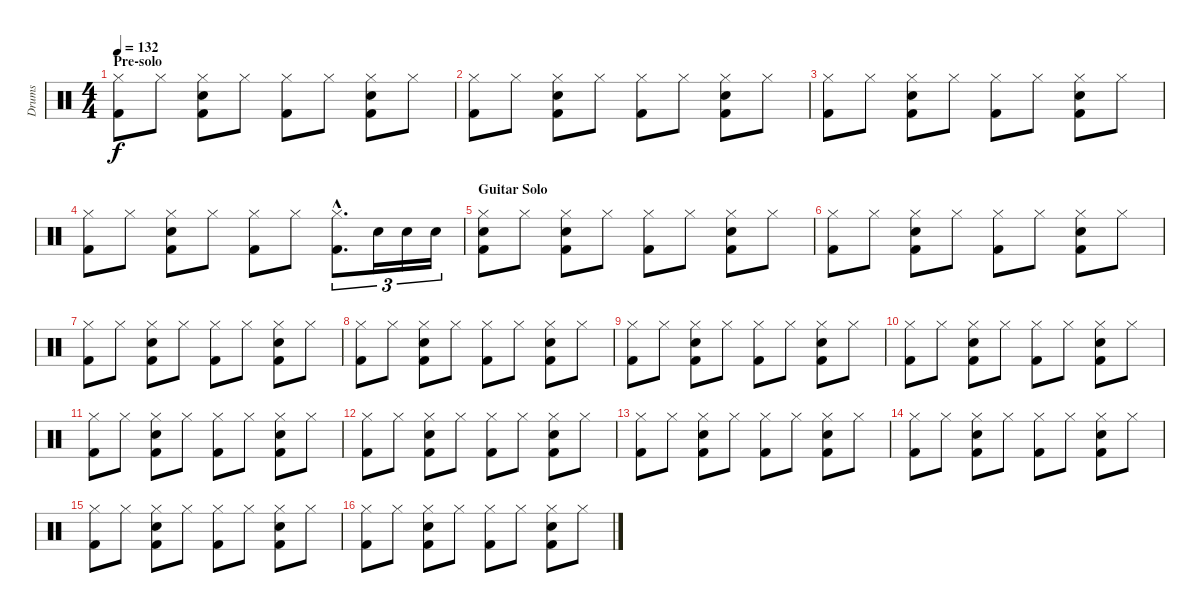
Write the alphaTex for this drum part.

\track ("Drums" "Drums") {instrument percussion}
\staff {score}
\articulation defaults
\ts (4 4)
\section ("" "Pre-solo")
\tempo 132
\clef neutral
\ks c
("Hi-Hat (closed)" "Kick (hit) 2").8{dy f} "Hi-Hat (closed)".8 ("Hi-Hat (closed)" "Snare (hit) 2" "Kick (hit) 2").8 "Hi-Hat (closed)".8 ("Hi-Hat (closed)" "Kick (hit) 2").8 "Hi-Hat (closed)".8 ("Hi-Hat (closed)" "Snare (hit) 2" "Kick (hit) 2").8 "Hi-Hat (closed)".8 |
("Hi-Hat (closed)" "Kick (hit) 2").8 "Hi-Hat (closed)".8 ("Hi-Hat (closed)" "Snare (hit) 2" "Kick (hit) 2").8 "Hi-Hat (closed)".8 ("Hi-Hat (closed)" "Kick (hit) 2").8 "Hi-Hat (closed)".8 ("Hi-Hat (closed)" "Snare (hit) 2" "Kick (hit) 2").8 "Hi-Hat (closed)".8 |
("Hi-Hat (closed)" "Kick (hit) 2").8 "Hi-Hat (closed)".8 ("Hi-Hat (closed)" "Snare (hit) 2" "Kick (hit) 2").8 "Hi-Hat (closed)".8 ("Hi-Hat (closed)" "Kick (hit) 2").8 "Hi-Hat (closed)".8 ("Hi-Hat (closed)" "Snare (hit) 2" "Kick (hit) 2").8 "Hi-Hat (closed)".8 |
("Hi-Hat (closed)" "Kick (hit) 2").8 "Hi-Hat (closed)".8 ("Hi-Hat (closed)" "Snare (hit) 2" "Kick (hit) 2").8 "Hi-Hat (closed)".8 ("Hi-Hat (closed)" "Kick (hit) 2").8 "Hi-Hat (closed)".8 ("Hi-Hat (closed)"{hac} "Kick (hit) 2"{hac}).8{d tu (3 2)} "Snare (hit) 2".16{tu (3 2)} "Snare (hit) 2".16{tu (3 2)} "Snare (hit) 2".16{tu (3 2)} |
\section ("" "Guitar Solo")
("Hi-Hat (closed)" "Snare (hit) 2" "Kick (hit) 2").8 "Hi-Hat (closed)".8 ("Hi-Hat (closed)" "Snare (hit) 2" "Kick (hit) 2").8 "Hi-Hat (closed)".8 ("Hi-Hat (closed)" "Kick (hit) 2").8 "Hi-Hat (closed)".8 ("Hi-Hat (closed)" "Snare (hit) 2" "Kick (hit) 2").8 "Hi-Hat (closed)".8 |
("Hi-Hat (closed)" "Kick (hit) 2").8 "Hi-Hat (closed)".8 ("Hi-Hat (closed)" "Snare (hit) 2" "Kick (hit) 2").8 "Hi-Hat (closed)".8 ("Hi-Hat (closed)" "Kick (hit) 2").8 "Hi-Hat (closed)".8 ("Hi-Hat (closed)" "Snare (hit) 2" "Kick (hit) 2").8 "Hi-Hat (closed)".8 |
("Hi-Hat (closed)" "Kick (hit) 2").8 "Hi-Hat (closed)".8 ("Hi-Hat (closed)" "Snare (hit) 2" "Kick (hit) 2").8 "Hi-Hat (closed)".8 ("Hi-Hat (closed)" "Kick (hit) 2").8 "Hi-Hat (closed)".8 ("Hi-Hat (closed)" "Snare (hit) 2" "Kick (hit) 2").8 "Hi-Hat (closed)".8 |
("Hi-Hat (closed)" "Kick (hit) 2").8 "Hi-Hat (closed)".8 ("Hi-Hat (closed)" "Snare (hit) 2" "Kick (hit) 2").8 "Hi-Hat (closed)".8 ("Hi-Hat (closed)" "Kick (hit) 2").8 "Hi-Hat (closed)".8 ("Hi-Hat (closed)" "Snare (hit) 2" "Kick (hit) 2").8 "Hi-Hat (closed)".8 |
("Hi-Hat (closed)" "Kick (hit) 2").8 "Hi-Hat (closed)".8 ("Hi-Hat (closed)" "Snare (hit) 2" "Kick (hit) 2").8 "Hi-Hat (closed)".8 ("Hi-Hat (closed)" "Kick (hit) 2").8 "Hi-Hat (closed)".8 ("Hi-Hat (closed)" "Snare (hit) 2" "Kick (hit) 2").8 "Hi-Hat (closed)".8 |
("Hi-Hat (closed)" "Kick (hit) 2").8 "Hi-Hat (closed)".8 ("Hi-Hat (closed)" "Snare (hit) 2" "Kick (hit) 2").8 "Hi-Hat (closed)".8 ("Hi-Hat (closed)" "Kick (hit) 2").8 "Hi-Hat (closed)".8 ("Hi-Hat (closed)" "Snare (hit) 2" "Kick (hit) 2").8 "Hi-Hat (closed)".8 |
("Hi-Hat (closed)" "Kick (hit) 2").8 "Hi-Hat (closed)".8 ("Hi-Hat (closed)" "Snare (hit) 2" "Kick (hit) 2").8 "Hi-Hat (closed)".8 ("Hi-Hat (closed)" "Kick (hit) 2").8 "Hi-Hat (closed)".8 ("Hi-Hat (closed)" "Snare (hit) 2" "Kick (hit) 2").8 "Hi-Hat (closed)".8 |
("Hi-Hat (closed)" "Kick (hit) 2").8 "Hi-Hat (closed)".8 ("Hi-Hat (closed)" "Snare (hit) 2" "Kick (hit) 2").8 "Hi-Hat (closed)".8 ("Hi-Hat (closed)" "Kick (hit) 2").8 "Hi-Hat (closed)".8 ("Hi-Hat (closed)" "Snare (hit) 2" "Kick (hit) 2").8 "Hi-Hat (closed)".8 |
("Hi-Hat (closed)" "Kick (hit) 2").8 "Hi-Hat (closed)".8 ("Hi-Hat (closed)" "Snare (hit) 2" "Kick (hit) 2").8 "Hi-Hat (closed)".8 ("Hi-Hat (closed)" "Kick (hit) 2").8 "Hi-Hat (closed)".8 ("Hi-Hat (closed)" "Snare (hit) 2" "Kick (hit) 2").8 "Hi-Hat (closed)".8 |
("Hi-Hat (closed)" "Kick (hit) 2").8 "Hi-Hat (closed)".8 ("Hi-Hat (closed)" "Snare (hit) 2" "Kick (hit) 2").8 "Hi-Hat (closed)".8 ("Hi-Hat (closed)" "Kick (hit) 2").8 "Hi-Hat (closed)".8 ("Hi-Hat (closed)" "Snare (hit) 2" "Kick (hit) 2").8 "Hi-Hat (closed)".8 |
("Hi-Hat (closed)" "Kick (hit) 2").8 "Hi-Hat (closed)".8 ("Hi-Hat (closed)" "Snare (hit) 2" "Kick (hit) 2").8 "Hi-Hat (closed)".8 ("Hi-Hat (closed)" "Kick (hit) 2").8 "Hi-Hat (closed)".8 ("Hi-Hat (closed)" "Snare (hit) 2" "Kick (hit) 2").8 "Hi-Hat (closed)".8 |
("Hi-Hat (closed)" "Kick (hit) 2").8 "Hi-Hat (closed)".8 ("Hi-Hat (closed)" "Snare (hit) 2" "Kick (hit) 2").8 "Hi-Hat (closed)".8 ("Hi-Hat (closed)" "Kick (hit) 2").8 "Hi-Hat (closed)".8 ("Hi-Hat (closed)" "Snare (hit) 2" "Kick (hit) 2").8 "Hi-Hat (closed)".8
